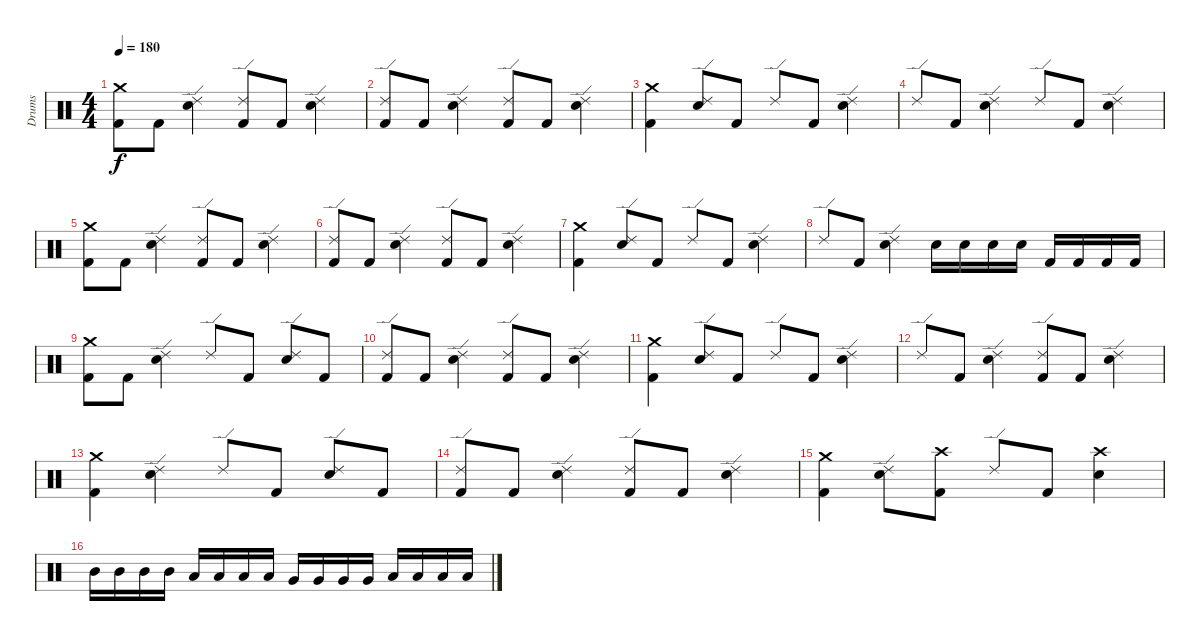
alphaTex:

\track ("Drums" "Drums") {instrument percussion}
\staff {score}
\articulation defaults
\ts (4 4)
\tempo 180
\clef neutral
\ks c
("Crash medium (hit)" "Kick (hit) 2").8{dy f} "Kick (hit) 2".8 ("Ride (edge) 2" "Electric Snare (hit)").4 ("Ride (edge) 2" "Kick (hit) 2").8 "Kick (hit) 2".8 ("Ride (edge) 2" "Electric Snare (hit)").4 |
("Ride (edge) 2" "Kick (hit) 2").8 "Kick (hit) 2".8 ("Ride (edge) 2" "Electric Snare (hit)").4 ("Ride (edge) 2" "Kick (hit) 2").8 "Kick (hit) 2".8 ("Ride (edge) 2" "Electric Snare (hit)").4 |
("Crash medium (hit)" "Kick (hit) 2").4 ("Ride (edge) 2" "Electric Snare (hit)").8 "Kick (hit) 2".8 "Ride (edge) 2".8 "Kick (hit) 2".8 ("Ride (edge) 2" "Electric Snare (hit)").4 |
"Ride (edge) 2".8 "Kick (hit) 2".8 ("Ride (edge) 2" "Electric Snare (hit)").4 "Ride (edge) 2".8 "Kick (hit) 2".8 ("Ride (edge) 2" "Electric Snare (hit)").4 |
("Crash medium (hit)" "Kick (hit) 2").8 "Kick (hit) 2".8 ("Ride (edge) 2" "Electric Snare (hit)").4 ("Ride (edge) 2" "Kick (hit) 2").8 "Kick (hit) 2".8 ("Ride (edge) 2" "Electric Snare (hit)").4 |
("Ride (edge) 2" "Kick (hit) 2").8 "Kick (hit) 2".8 ("Ride (edge) 2" "Electric Snare (hit)").4 ("Ride (edge) 2" "Kick (hit) 2").8 "Kick (hit) 2".8 ("Ride (edge) 2" "Electric Snare (hit)").4 |
("Crash medium (hit)" "Kick (hit) 2").4 ("Ride (edge) 2" "Electric Snare (hit)").8 "Kick (hit) 2".8 "Ride (edge) 2".8 "Kick (hit) 2".8 ("Ride (edge) 2" "Electric Snare (hit)").4 |
"Ride (edge) 2".8 "Kick (hit) 2".8 ("Ride (edge) 2" "Electric Snare (hit)").4 "Electric Snare (hit)".16 "Electric Snare (hit)".16 "Electric Snare (hit)".16 "Electric Snare (hit)".16 "Kick (hit) 2".16 "Kick (hit) 2".16 "Kick (hit) 2".16 "Kick (hit) 2".16 |
("Crash medium (hit)" "Kick (hit) 2").8 "Kick (hit) 2".8 ("Ride (edge) 2" "Electric Snare (hit)").4 "Ride (edge) 2".8 "Kick (hit) 2".8 ("Ride (edge) 2" "Electric Snare (hit)").8 "Kick (hit) 2".8 |
("Ride (edge) 2" "Kick (hit) 2").8 "Kick (hit) 2".8 ("Ride (edge) 2" "Electric Snare (hit)").4 ("Ride (edge) 2" "Kick (hit) 2").8 "Kick (hit) 2".8 ("Ride (edge) 2" "Electric Snare (hit)").4 |
("Crash medium (hit)" "Kick (hit) 2").4 ("Ride (edge) 2" "Electric Snare (hit)").8 "Kick (hit) 2".8 "Ride (edge) 2".8 "Kick (hit) 2".8 ("Ride (edge) 2" "Electric Snare (hit)").4 |
"Ride (edge) 2".8 "Kick (hit) 2".8 ("Ride (edge) 2" "Electric Snare (hit)").4 ("Ride (edge) 2" "Kick (hit) 2").8 "Kick (hit) 2".8 ("Ride (edge) 2" "Electric Snare (hit)").4 |
("Crash medium (hit)" "Kick (hit) 2").4 ("Ride (edge) 2" "Electric Snare (hit)").4 "Ride (edge) 2".8 "Kick (hit) 2".8 ("Ride (edge) 2" "Electric Snare (hit)").8 "Kick (hit) 2".8 |
("Ride (edge) 2" "Kick (hit) 2").8 "Kick (hit) 2".8 ("Ride (edge) 2" "Electric Snare (hit)").4 ("Ride (edge) 2" "Kick (hit) 2").8 "Kick (hit) 2".8 ("Ride (edge) 2" "Electric Snare (hit)").4 |
("Crash medium (hit)" "Kick (hit) 2").4 ("Ride (edge) 2" "Electric Snare (hit)").8 ("Crash high (hit)" "Kick (hit) 2").8 "Ride (edge) 2".8 "Kick (hit) 2".8 ("Crash high (hit)" "Electric Snare (hit)").4 |
"Mid Tom (hit)".16 "Mid Tom (hit)".16 "Mid Tom (hit)".16 "Mid Tom (hit)".16 "Low Tom (hit)".16 "Low Tom (hit)".16 "Low Tom (hit)".16 "Low Tom (hit)".16 "Very Low Tom (hit)".16 "Very Low Tom (hit)".16 "Very Low Tom (hit)".16 "Very Low Tom (hit)".16 "Low Floor Tom (hit)".16 "Low Floor Tom (hit)".16 "Low Floor Tom (hit)".16 "Low Floor Tom (hit)".16
